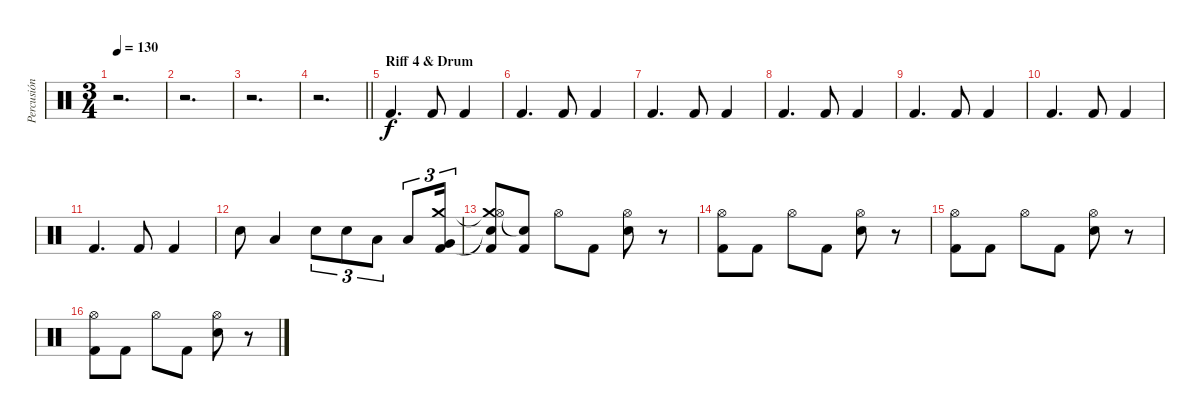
\track ("Percusión" "Percusión") {instrument percussion}
\staff {score}
\articulation defaults
\ts (3 4)
\tempo 130
\clef neutral
\ks c
r.2{d dy f} |
r.2{d} |
r.2{d} |
\barLineRight lightlight
r.2{d} |
\section ("" "Riff 4 & Drum")
"Kick (hit) 2".4{d} "Kick (hit) 2".8 "Kick (hit) 2".4 |
"Kick (hit) 2".4{d} "Kick (hit) 2".8 "Kick (hit) 2".4 |
"Kick (hit) 2".4{d} "Kick (hit) 2".8 "Kick (hit) 2".4 |
"Kick (hit) 2".4{d} "Kick (hit) 2".8 "Kick (hit) 2".4 |
"Kick (hit) 2".4{d} "Kick (hit) 2".8 "Kick (hit) 2".4 |
"Kick (hit) 2".4{d} "Kick (hit) 2".8 "Kick (hit) 2".4 |
"Kick (hit) 2".4{d} "Kick (hit) 2".8 "Kick (hit) 2".4 |
"Electric Snare (hit)".8 "Low Tom (hit)".4 "Electric Snare (hit)".8{tu (3 2)} "Electric Snare (hit)".8{tu (3 2)} "Low Tom (hit)".8{tu (3 2)} "Low Tom (hit)".8{tu (3 2)} ("Crash medium (hit)" "Very Low Tom (hit)" "Kick (hit) 2").16{tu (3 2)} |
("Crash medium (hit)"{t} "Hi-Hat (open)" "Snare (hit)"{t} "Kick (hit) 2").8 ("Snare (hit)"{t} "Kick (hit) 2").8 "Hi-Hat (open)".8 "Kick (hit) 2".8 ("Hi-Hat (open)" "Electric Snare (hit)").8 r.8 |
("Hi-Hat (open)" "Kick (hit) 2").8 "Kick (hit) 2".8 "Hi-Hat (open)".8 "Kick (hit) 2".8 ("Hi-Hat (open)" "Electric Snare (hit)").8 r.8 |
("Hi-Hat (open)" "Kick (hit) 2").8 "Kick (hit) 2".8 "Hi-Hat (open)".8 "Kick (hit) 2".8 ("Hi-Hat (open)" "Electric Snare (hit)").8 r.8 |
("Hi-Hat (open)" "Kick (hit) 2").8 "Kick (hit) 2".8 "Hi-Hat (open)".8 "Kick (hit) 2".8 ("Hi-Hat (open)" "Electric Snare (hit)").8 r.8
